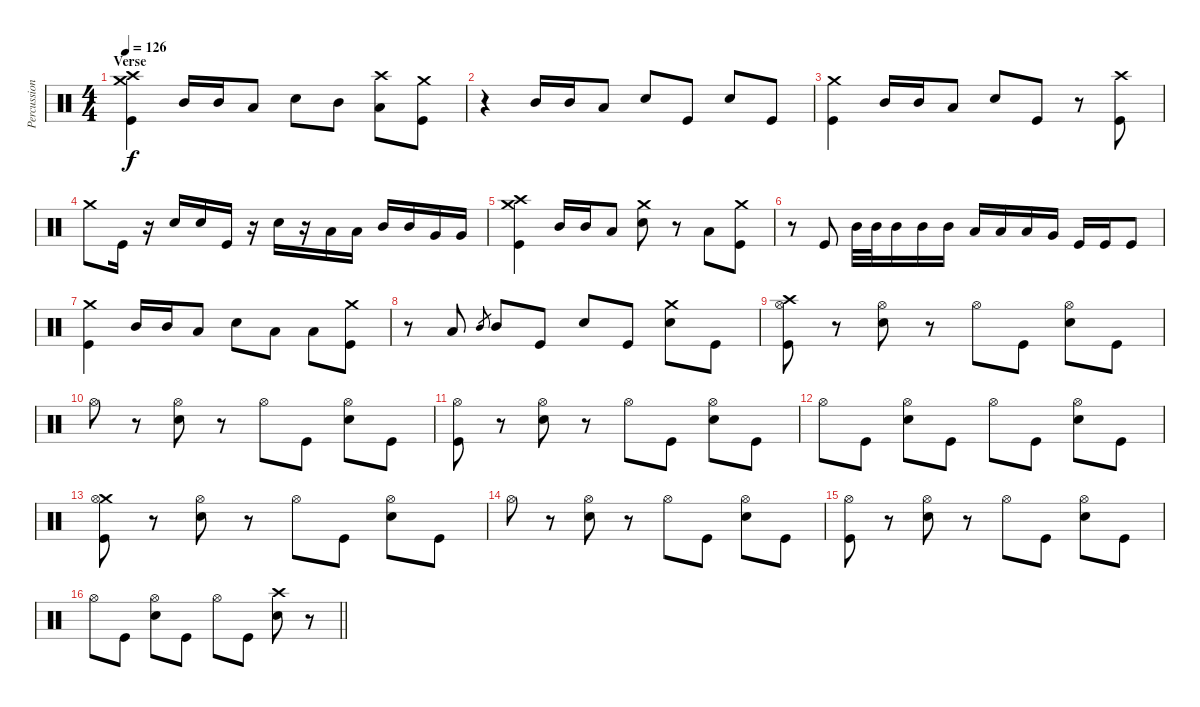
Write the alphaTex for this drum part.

\track ("Percussion" "Percussion") {instrument percussion}
\staff {score}
\articulation defaults
\ts (4 4)
\section ("" "Verse")
\tempo 126
\clef neutral
\ks c
("Crash medium (hit)" "Crash high (hit)" "Kick (hit)").4{dy f} "Mid Tom (hit)".16 "Mid Tom (hit)".16 "Low Tom (hit)".8 "Snare (hit) 2".8 "Mid Tom (hit)".8 ("Crash high (hit)" "Low Tom (hit)").8 ("Crash medium (hit)" "Kick (hit)").8 |
r.4 "Mid Tom (hit)".16 "Mid Tom (hit)".16 "Low Tom (hit)".8 "Snare (hit) 2".8 "Kick (hit)".8 "Snare (hit) 2".8 "Kick (hit)".8 |
("Crash medium (hit)" "Kick (hit)").4 "Mid Tom (hit)".16 "Mid Tom (hit)".16 "Low Tom (hit)".8 "Snare (hit) 2".8 "Kick (hit)".8 r.8 ("Crash high (hit)" "Kick (hit)").8 |
"Crash medium (hit)".8 "Kick (hit)".16 r.16 "Snare (hit) 2".16 "Snare (hit) 2".16 "Kick (hit)".16 r.16 "Snare (hit) 2".16 r.16 "Low Tom (hit)".16 "Low Tom (hit)".16 "Mid Tom (hit)".16 "Mid Tom (hit)".16 "Very Low Tom (hit)".16 "Very Low Tom (hit)".16 |
("Crash medium (hit)" "Crash high (hit)" "Kick (hit)").4 "Mid Tom (hit)".16 "Mid Tom (hit)".16 "Low Tom (hit)".8 ("Crash medium (hit)" "Snare (hit) 2").8 r.8 "Low Tom (hit)".8 ("Crash medium (hit)" "Kick (hit)").8 |
r.8 "Kick (hit)".8 "Mid Tom (hit)".32 "Mid Tom (hit)".32 "Mid Tom (hit)".16 "Mid Tom (hit)".16 "Mid Tom (hit)".16 "Low Tom (hit)".16 "Low Tom (hit)".16 "Low Tom (hit)".16 "Very Low Tom (hit)".16 "Kick (hit)".16 "Kick (hit)".16 "Kick (hit)".8 |
("Crash medium (hit)" "Kick (hit)").4 "Mid Tom (hit)".16 "Mid Tom (hit)".16 "Low Tom (hit)".8 "Snare (hit) 2".8 "Low Tom (hit)".8 "Low Tom (hit)".8 ("Crash medium (hit)" "Kick (hit)").8 |
r.8 "Low Tom (hit)".8 "Mid Tom (hit)".8{gr} "Mid Tom (hit)".8 "Kick (hit)".8 "Snare (hit) 2".8 "Kick (hit)".8 ("Crash medium (hit)" "Snare (hit) 2").8 "Kick (hit)".8 |
("Crash high (hit)" "Hi-Hat (open)" "Kick (hit)").8 r.8 ("Hi-Hat (open)" "Snare (hit) 2").8 r.8 "Hi-Hat (open)".8 "Kick (hit)".8 ("Hi-Hat (open)" "Snare (hit) 2").8 "Kick (hit)".8 |
"Hi-Hat (open)".8 r.8 ("Hi-Hat (open)" "Snare (hit) 2").8 r.8 "Hi-Hat (open)".8 "Kick (hit)".8 ("Hi-Hat (open)" "Snare (hit) 2").8 "Kick (hit)".8 |
("Hi-Hat (open)" "Kick (hit)").8 r.8 ("Hi-Hat (open)" "Snare (hit) 2").8 r.8 "Hi-Hat (open)".8 "Kick (hit)".8 ("Hi-Hat (open)" "Snare (hit) 2").8 "Kick (hit)".8 |
"Hi-Hat (open)".8 "Kick (hit)".8 ("Hi-Hat (open)" "Snare (hit) 2").8 "Kick (hit)".8 "Hi-Hat (open)".8 "Kick (hit)".8 ("Hi-Hat (open)" "Snare (hit) 2").8 "Kick (hit)".8 |
("Crash medium (hit)" "Hi-Hat (open)" "Kick (hit)").8 r.8 ("Hi-Hat (open)" "Snare (hit) 2").8 r.8 "Hi-Hat (open)".8 "Kick (hit)".8 ("Hi-Hat (open)" "Snare (hit) 2").8 "Kick (hit)".8 |
"Hi-Hat (open)".8 r.8 ("Hi-Hat (open)" "Snare (hit) 2").8 r.8 "Hi-Hat (open)".8 "Kick (hit)".8 ("Hi-Hat (open)" "Snare (hit) 2").8 "Kick (hit)".8 |
("Hi-Hat (open)" "Kick (hit)").8 r.8 ("Hi-Hat (open)" "Snare (hit) 2").8 r.8 "Hi-Hat (open)".8 "Kick (hit)".8 ("Hi-Hat (open)" "Snare (hit) 2").8 "Kick (hit)".8 |
\barLineRight lightlight "Hi-Hat (open)".8 "Kick (hit)".8
("Hi-Hat (open)" "Snare (hit) 2").8 "Kick (hit)".8 "Hi-Hat (open)".8 "Kick (hit)".8 ("Crash high (hit)" "Snare (hit) 2").8 r.8
